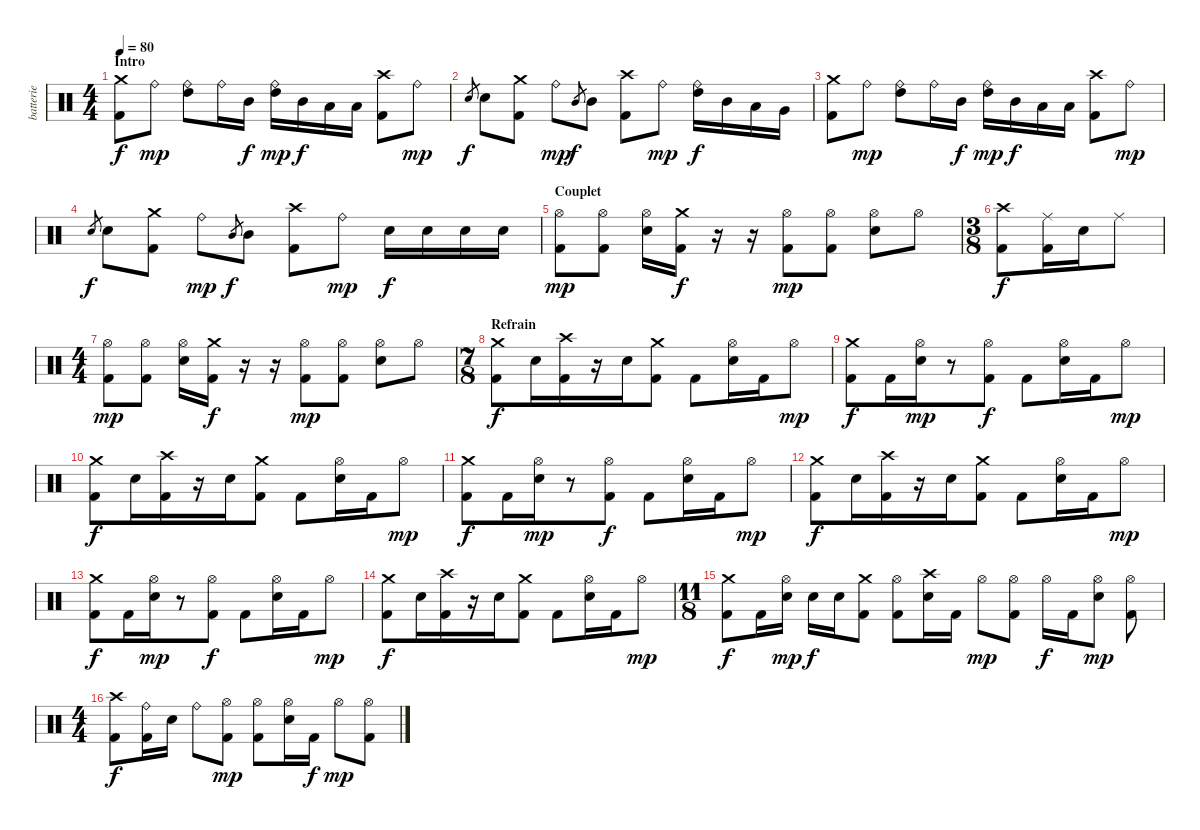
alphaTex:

\track ("batterie" "batterie") {instrument percussion}
\staff {score}
\articulation defaults
\ts (4 4)
\section ("" "Intro")
\tempo 80
\clef neutral
\ks c
("Crash medium (hit)" "Kick (hit) 2").8{dy f} "Ride (bell)".8{dy mp} ("Ride (bell)" "High Tom (hit)").8 "Ride (bell)".16 "Mid Tom (hit)".16{dy f} ("Ride (bell)" "High Tom (hit)").16{dy mp} "Mid Tom (hit)".16{dy f} "Low Tom (hit)".16 "Low Tom (hit)".16 ("Crash high (hit)" "Kick (hit) 2").8 "Ride (bell)".8{dy mp} |
"Electric Snare (hit)".8{gr dy f} "Electric Snare (hit)".8 ("Crash medium (hit)" "Kick (hit) 2").8 "Ride (bell)".8{dy mp} "Mid Tom (hit)".8{gr dy f} "Mid Tom (hit)".8 ("Crash high (hit)" "Kick (hit) 2").8 "Ride (bell)".8{dy mp} ("Ride (bell)" "High Tom (hit)").16{dy f} "Mid Tom (hit)".16 "Low Tom (hit)".16 "Very Low Tom (hit)".16 |
("Crash medium (hit)" "Kick (hit) 2").8 "Ride (bell)".8{dy mp} ("Ride (bell)" "High Tom (hit)").8 "Ride (bell)".16 "Mid Tom (hit)".16{dy f} ("Ride (bell)" "High Tom (hit)").16{dy mp} "Mid Tom (hit)".16{dy f} "Low Tom (hit)".16 "Low Tom (hit)".16 ("Crash high (hit)" "Kick (hit) 2").8 "Ride (bell)".8{dy mp} |
"Electric Snare (hit)".8{gr dy f} "Electric Snare (hit)".8 ("Crash medium (hit)" "Kick (hit) 2").8 "Ride (bell)".8{dy mp} "Mid Tom (hit)".8{gr dy f} "Mid Tom (hit)".8 ("Crash high (hit)" "Kick (hit) 2").8 "Ride (bell)".8{dy mp} "Electric Snare (hit)".16{dy f} "Electric Snare (hit)".16 "Electric Snare (hit)".16 "Electric Snare (hit)".16 |
\section ("" "Couplet")
("Hi-Hat (open)" "Kick (hit) 2").8{dy mp} ("Hi-Hat (open)" "Kick (hit) 2").8 ("Hi-Hat (open)" "Electric Snare (hit)").16 ("Crash medium (hit)" "Kick (hit) 2").16{dy f} r.16 r.16 ("Hi-Hat (open)" "Kick (hit) 2").8{dy mp} ("Hi-Hat (open)" "Kick (hit) 2").8 ("Hi-Hat (open)" "Electric Snare (hit)").8 "Hi-Hat (open)".8 |
\ts (3 8)
("Crash high (hit)" "Kick (hit) 2").8{dy f} ("Ride (middle)" "Kick (hit) 2").16 "Electric Snare (hit)".16 "Ride (middle)".8 |
\ts (4 4)
("Hi-Hat (open)" "Kick (hit) 2").8{dy mp} ("Hi-Hat (open)" "Kick (hit) 2").8 ("Hi-Hat (open)" "Electric Snare (hit)").16 ("Crash medium (hit)" "Kick (hit) 2").16{dy f} r.16 r.16 ("Hi-Hat (open)" "Kick (hit) 2").8{dy mp} ("Hi-Hat (open)" "Kick (hit) 2").8 ("Hi-Hat (open)" "Electric Snare (hit)").8 "Hi-Hat (open)".8 |
\ts (7 8)
\section ("" "Refrain")
("Crash medium (hit)" "Kick (hit) 2").8{dy f} "Electric Snare (hit)".16 ("Crash high (hit)" "Kick (hit) 2").16 r.16 "Electric Snare (hit)".16 ("Crash medium (hit)" "Kick (hit) 2").8 "Kick (hit) 2".8 ("Hi-Hat (open)" "Electric Snare (hit)").16 "Kick (hit) 2".16 "Hi-Hat (open)".8{dy mp} |
("Crash medium (hit)" "Kick (hit) 2").8{dy f} "Kick (hit) 2".16 ("Hi-Hat (open)" "Electric Snare (hit)").16{dy mp} r.8 ("Hi-Hat (open)" "Kick (hit) 2").8{dy f} "Kick (hit) 2".8 ("Hi-Hat (open)" "Electric Snare (hit)").16 "Kick (hit) 2".16 "Hi-Hat (open)".8{dy mp} |
("Crash medium (hit)" "Kick (hit) 2").8{dy f} "Electric Snare (hit)".16 ("Crash high (hit)" "Kick (hit) 2").16 r.16 "Electric Snare (hit)".16 ("Crash medium (hit)" "Kick (hit) 2").8 "Kick (hit) 2".8 ("Hi-Hat (open)" "Electric Snare (hit)").16 "Kick (hit) 2".16 "Hi-Hat (open)".8{dy mp} |
("Crash medium (hit)" "Kick (hit) 2").8{dy f} "Kick (hit) 2".16 ("Hi-Hat (open)" "Electric Snare (hit)").16{dy mp} r.8 ("Hi-Hat (open)" "Kick (hit) 2").8{dy f} "Kick (hit) 2".8 ("Hi-Hat (open)" "Electric Snare (hit)").16 "Kick (hit) 2".16 "Hi-Hat (open)".8{dy mp} |
("Crash medium (hit)" "Kick (hit) 2").8{dy f} "Electric Snare (hit)".16 ("Crash high (hit)" "Kick (hit) 2").16 r.16 "Electric Snare (hit)".16 ("Crash medium (hit)" "Kick (hit) 2").8 "Kick (hit) 2".8 ("Hi-Hat (open)" "Electric Snare (hit)").16 "Kick (hit) 2".16 "Hi-Hat (open)".8{dy mp} |
("Crash medium (hit)" "Kick (hit) 2").8{dy f} "Kick (hit) 2".16 ("Hi-Hat (open)" "Electric Snare (hit)").16{dy mp} r.8 ("Hi-Hat (open)" "Kick (hit) 2").8{dy f} "Kick (hit) 2".8 ("Hi-Hat (open)" "Electric Snare (hit)").16 "Kick (hit) 2".16 "Hi-Hat (open)".8{dy mp} |
("Crash medium (hit)" "Kick (hit) 2").8{dy f} "Electric Snare (hit)".16 ("Crash high (hit)" "Kick (hit) 2").16 r.16 "Electric Snare (hit)".16 ("Crash medium (hit)" "Kick (hit) 2").8 "Kick (hit) 2".8 ("Hi-Hat (open)" "Electric Snare (hit)").16 "Kick (hit) 2".16 "Hi-Hat (open)".8{dy mp} |
\ts (11 8)
("Crash medium (hit)" "Kick (hit) 2").8{dy f} "Kick (hit) 2".16 ("Hi-Hat (open)" "Electric Snare (hit)").16{dy mp} "Electric Snare (hit)".16{dy f} "Electric Snare (hit)".16 ("Crash medium (hit)" "Kick (hit) 2").8 ("Hi-Hat (open)" "Kick (hit) 2").8 ("Crash high (hit)" "Electric Snare (hit)").16 "Kick (hit) 2".16 "Hi-Hat (open)".8{dy mp} ("Hi-Hat (open)" "Kick (hit) 2").8 "Hi-Hat (open)".16{dy f} "Kick (hit) 2".16 ("Hi-Hat (open)" "Electric Snare (hit)").8{dy mp} ("Hi-Hat (open)" "Kick (hit) 2").8 |
\ts (4 4)
("Crash high (hit)" "Kick (hit) 2").8{dy f} ("Ride (bell)" "Kick (hit) 2").16 "Electric Snare (hit)".16 "Ride (bell)".8 ("Hi-Hat (open)" "Kick (hit) 2").8{dy mp} ("Hi-Hat (open)" "Kick (hit) 2").8 ("Hi-Hat (open)" "Electric Snare (hit)").16 "Kick (hit) 2".16{dy f} "Hi-Hat (open)".8{dy mp} ("Hi-Hat (open)" "Kick (hit) 2").8
